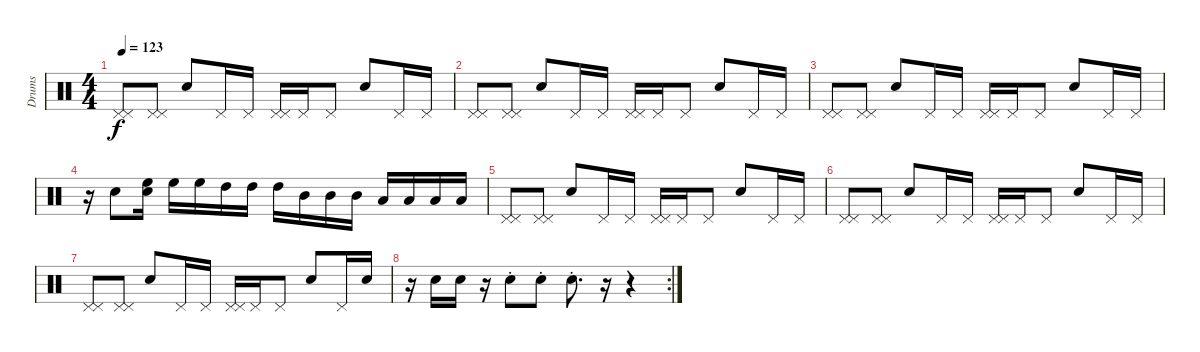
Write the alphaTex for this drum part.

\track ("Drums" "Drums") {instrument percussion}
\staff {score}
\articulation defaults
\ts (4 4)
\tempo 123
\clef neutral
\ks c
("Pedal Hi-Hat (hit)" "Pedal Hi-Hat (hit)").8{dy f} ("Pedal Hi-Hat (hit)" "Pedal Hi-Hat (hit)").8 "Electric Snare (hit)".8 "Pedal Hi-Hat (hit)".16 "Pedal Hi-Hat (hit)".16 ("Pedal Hi-Hat (hit)" "Pedal Hi-Hat (hit)").16 "Pedal Hi-Hat (hit)".16 "Pedal Hi-Hat (hit)".8 "Electric Snare (hit)".8 "Pedal Hi-Hat (hit)".16 "Pedal Hi-Hat (hit)".16 |
("Pedal Hi-Hat (hit)" "Pedal Hi-Hat (hit)").8 ("Pedal Hi-Hat (hit)" "Pedal Hi-Hat (hit)").8 "Electric Snare (hit)".8 "Pedal Hi-Hat (hit)".16 "Pedal Hi-Hat (hit)".16 ("Pedal Hi-Hat (hit)" "Pedal Hi-Hat (hit)").16 "Pedal Hi-Hat (hit)".16 "Pedal Hi-Hat (hit)".8 "Electric Snare (hit)".8 "Pedal Hi-Hat (hit)".16 "Pedal Hi-Hat (hit)".16 |
("Pedal Hi-Hat (hit)" "Pedal Hi-Hat (hit)").8 ("Pedal Hi-Hat (hit)" "Pedal Hi-Hat (hit)").8 "Electric Snare (hit)".8 "Pedal Hi-Hat (hit)".16 "Pedal Hi-Hat (hit)".16 ("Pedal Hi-Hat (hit)" "Pedal Hi-Hat (hit)").16 "Pedal Hi-Hat (hit)".16 "Pedal Hi-Hat (hit)".8 "Electric Snare (hit)".8 "Pedal Hi-Hat (hit)".16 "Pedal Hi-Hat (hit)".16 |
r.16 "Electric Snare (hit)".8 ("Electric Snare (hit)" "High Floor Tom (hit)").16 "High Floor Tom (hit)".16 "High Floor Tom (hit)".16 "High Tom (hit)".16 "High Tom (hit)".16 "High Tom (hit)".16 "Mid Tom (hit)".16 "Mid Tom (hit)".16 "Mid Tom (hit)".16 "Low Tom (hit)".16 "Low Tom (hit)".16 "Low Tom (hit)".16 "Low Tom (hit)".16 |
("Pedal Hi-Hat (hit)" "Pedal Hi-Hat (hit)").8 ("Pedal Hi-Hat (hit)" "Pedal Hi-Hat (hit)").8 "Electric Snare (hit)".8 "Pedal Hi-Hat (hit)".16 "Pedal Hi-Hat (hit)".16 ("Pedal Hi-Hat (hit)" "Pedal Hi-Hat (hit)").16 "Pedal Hi-Hat (hit)".16 "Pedal Hi-Hat (hit)".8 "Electric Snare (hit)".8 "Pedal Hi-Hat (hit)".16 "Pedal Hi-Hat (hit)".16 |
("Pedal Hi-Hat (hit)" "Pedal Hi-Hat (hit)").8 ("Pedal Hi-Hat (hit)" "Pedal Hi-Hat (hit)").8 "Electric Snare (hit)".8 "Pedal Hi-Hat (hit)".16 "Pedal Hi-Hat (hit)".16 ("Pedal Hi-Hat (hit)" "Pedal Hi-Hat (hit)").16 "Pedal Hi-Hat (hit)".16 "Pedal Hi-Hat (hit)".8 "Electric Snare (hit)".8 "Pedal Hi-Hat (hit)".16 "Pedal Hi-Hat (hit)".16 |
("Pedal Hi-Hat (hit)" "Pedal Hi-Hat (hit)").8 ("Pedal Hi-Hat (hit)" "Pedal Hi-Hat (hit)").8 "Electric Snare (hit)".8 "Pedal Hi-Hat (hit)".16 "Pedal Hi-Hat (hit)".16 ("Pedal Hi-Hat (hit)" "Pedal Hi-Hat (hit)").16 "Pedal Hi-Hat (hit)".16 "Pedal Hi-Hat (hit)".8 "Electric Snare (hit)".8 "Pedal Hi-Hat (hit)".16 "Electric Snare (hit)".16 |
\rc 2
r.16 "Electric Snare (hit)".16 "Electric Snare (hit)".16 r.16 "Electric Snare (hit)"{st}.8 "Electric Snare (hit)"{st}.8 "Electric Snare (hit)"{st}.8{d} r.16 r.4
